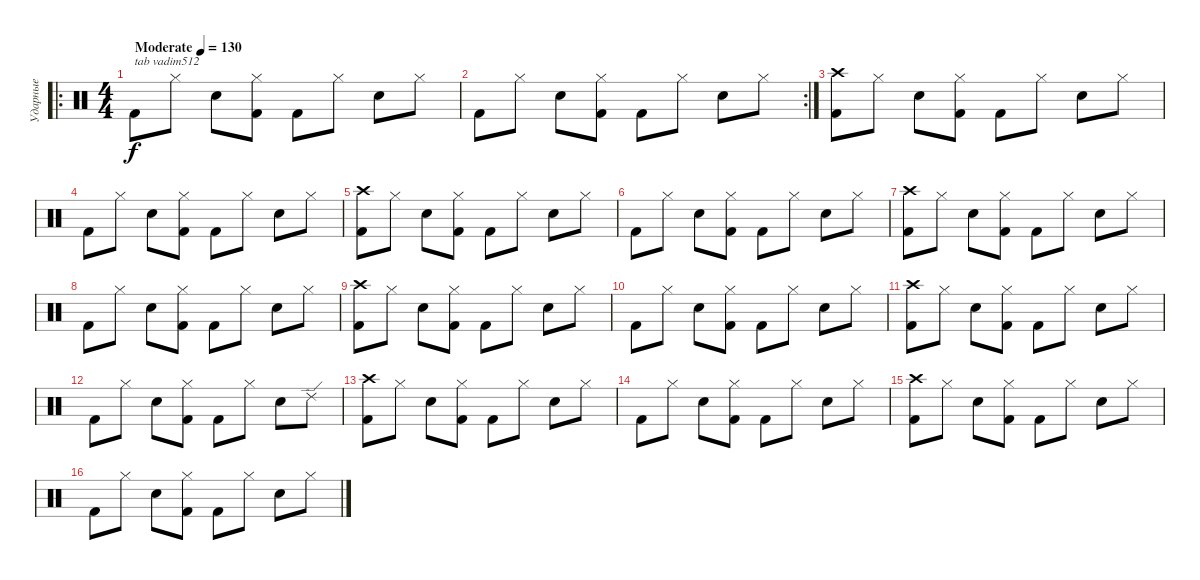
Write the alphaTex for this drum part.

\track ("Ударные" "Ударные") {instrument percussion}
\staff {score}
\articulation defaults
\ro
\ts (4 4)
\tempo (130 "Moderate")
\clef neutral
\ks c "Kick (hit) 2".8{txt "tab vadim512" dy f} "Hi-Hat (closed)".8 "Electric Snare (hit)".8
("Kick (hit) 2" "Hi-Hat (closed)").8 "Kick (hit) 2".8 "Hi-Hat (closed)".8 "Electric Snare (hit)".8 "Hi-Hat (closed)".8 |
\rc 2 "Kick (hit) 2".8 "Hi-Hat (closed)".8 "Electric Snare (hit)".8
("Kick (hit) 2" "Hi-Hat (closed)").8 "Kick (hit) 2".8 "Hi-Hat (closed)".8 "Electric Snare (hit)".8 "Hi-Hat (closed)".8 |
("Kick (hit) 2" "Crash high (hit)").8 "Hi-Hat (closed)".8 "Electric Snare (hit)".8 ("Kick (hit) 2" "Hi-Hat (closed)").8 "Kick (hit) 2".8 "Hi-Hat (closed)".8 "Electric Snare (hit)".8 "Hi-Hat (closed)".8 |
"Kick (hit) 2".8 "Hi-Hat (closed)".8 "Electric Snare (hit)".8 ("Kick (hit) 2" "Hi-Hat (closed)").8 "Kick (hit) 2".8 "Hi-Hat (closed)".8 "Electric Snare (hit)".8 "Hi-Hat (closed)".8 |
("Kick (hit) 2" "Crash high (hit)").8 "Hi-Hat (closed)".8 "Electric Snare (hit)".8 ("Kick (hit) 2" "Hi-Hat (closed)").8 "Kick (hit) 2".8 "Hi-Hat (closed)".8 "Electric Snare (hit)".8 "Hi-Hat (closed)".8 |
"Kick (hit) 2".8 "Hi-Hat (closed)".8 "Electric Snare (hit)".8 ("Kick (hit) 2" "Hi-Hat (closed)").8 "Kick (hit) 2".8 "Hi-Hat (closed)".8 "Electric Snare (hit)".8 "Hi-Hat (closed)".8 |
("Kick (hit) 2" "Crash high (hit)").8 "Hi-Hat (closed)".8 "Electric Snare (hit)".8 ("Kick (hit) 2" "Hi-Hat (closed)").8 "Kick (hit) 2".8 "Hi-Hat (closed)".8 "Electric Snare (hit)".8 "Hi-Hat (closed)".8 |
"Kick (hit) 2".8 "Hi-Hat (closed)".8 "Electric Snare (hit)".8 ("Kick (hit) 2" "Hi-Hat (closed)").8 "Kick (hit) 2".8 "Hi-Hat (closed)".8 "Electric Snare (hit)".8 "Hi-Hat (closed)".8 |
("Kick (hit) 2" "Crash high (hit)").8 "Hi-Hat (closed)".8 "Electric Snare (hit)".8 ("Kick (hit) 2" "Hi-Hat (closed)").8 "Kick (hit) 2".8 "Hi-Hat (closed)".8 "Electric Snare (hit)".8 "Hi-Hat (closed)".8 |
"Kick (hit) 2".8 "Hi-Hat (closed)".8 "Electric Snare (hit)".8 ("Kick (hit) 2" "Hi-Hat (closed)").8 "Kick (hit) 2".8 "Hi-Hat (closed)".8 "Electric Snare (hit)".8 "Hi-Hat (closed)".8 |
("Kick (hit) 2" "Crash high (hit)").8 "Hi-Hat (closed)".8 "Electric Snare (hit)".8 ("Kick (hit) 2" "Hi-Hat (closed)").8 "Kick (hit) 2".8 "Hi-Hat (closed)".8 "Electric Snare (hit)".8 "Hi-Hat (closed)".8 |
"Kick (hit) 2".8 "Hi-Hat (closed)".8 "Electric Snare (hit)".8 ("Kick (hit) 2" "Hi-Hat (closed)").8 "Kick (hit) 2".8 "Hi-Hat (closed)".8 "Electric Snare (hit)".8 "Ride (edge) 2".8 |
("Kick (hit) 2" "Crash high (hit)").8 "Hi-Hat (closed)".8 "Electric Snare (hit)".8 ("Kick (hit) 2" "Hi-Hat (closed)").8 "Kick (hit) 2".8 "Hi-Hat (closed)".8 "Electric Snare (hit)".8 "Hi-Hat (closed)".8 |
"Kick (hit) 2".8 "Hi-Hat (closed)".8 "Electric Snare (hit)".8 ("Kick (hit) 2" "Hi-Hat (closed)").8 "Kick (hit) 2".8 "Hi-Hat (closed)".8 "Electric Snare (hit)".8 "Hi-Hat (closed)".8 |
("Kick (hit) 2" "Crash high (hit)").8 "Hi-Hat (closed)".8 "Electric Snare (hit)".8 ("Kick (hit) 2" "Hi-Hat (closed)").8 "Kick (hit) 2".8 "Hi-Hat (closed)".8 "Electric Snare (hit)".8 "Hi-Hat (closed)".8 |
"Kick (hit) 2".8 "Hi-Hat (closed)".8 "Electric Snare (hit)".8 ("Kick (hit) 2" "Hi-Hat (closed)").8 "Kick (hit) 2".8 "Hi-Hat (closed)".8 "Electric Snare (hit)".8 "Hi-Hat (closed)".8
